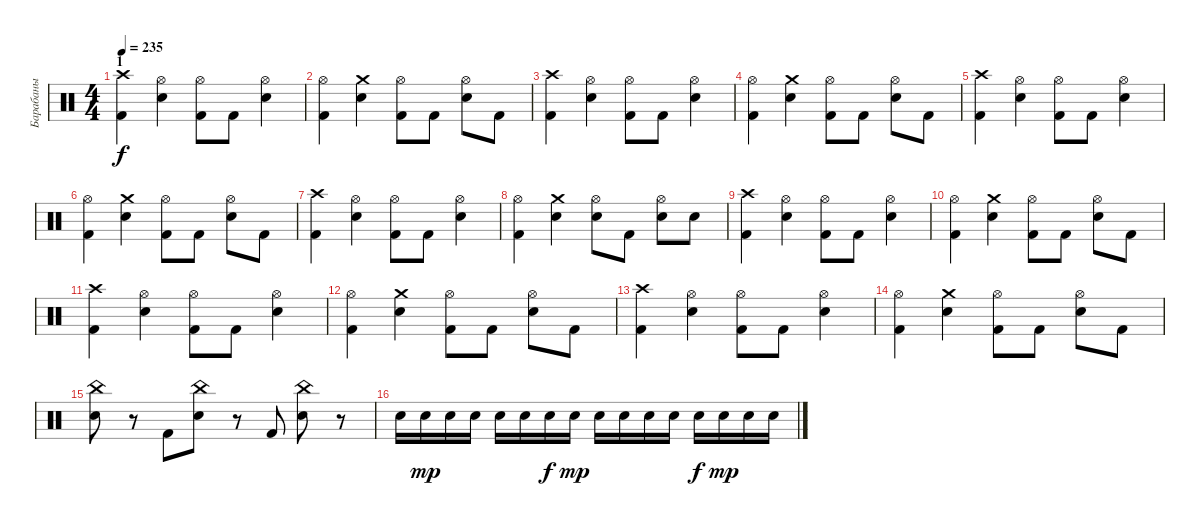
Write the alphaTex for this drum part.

\track ("Барабаны" "Барабаны") {instrument percussion}
\staff {score}
\articulation defaults
\ts (4 4)
\section ("" "1")
\tempo 235
\clef neutral
\ks c
("Crash high (hit)" "Kick (hit) 2").4{dy f} ("Electric Snare (hit)" "Hi-Hat (open)").4 ("Kick (hit) 2" "Hi-Hat (open)").8 "Kick (hit) 2".8 ("Hi-Hat (open)" "Electric Snare (hit)").4 |
("Hi-Hat (open)" "Kick (hit) 2").4 ("Crash medium (hit)" "Electric Snare (hit)").4 ("Hi-Hat (open)" "Kick (hit) 2").8 "Kick (hit) 2".8 ("Hi-Hat (open)" "Electric Snare (hit)").8 "Kick (hit) 2".8 |
("Crash high (hit)" "Kick (hit) 2").4 ("Electric Snare (hit)" "Hi-Hat (open)").4 ("Kick (hit) 2" "Hi-Hat (open)").8 "Kick (hit) 2".8 ("Hi-Hat (open)" "Electric Snare (hit)").4 |
("Hi-Hat (open)" "Kick (hit) 2").4 ("Crash medium (hit)" "Electric Snare (hit)").4 ("Hi-Hat (open)" "Kick (hit) 2").8 "Kick (hit) 2".8 ("Hi-Hat (open)" "Electric Snare (hit)").8 "Kick (hit) 2".8 |
("Crash high (hit)" "Kick (hit) 2").4 ("Electric Snare (hit)" "Hi-Hat (open)").4 ("Kick (hit) 2" "Hi-Hat (open)").8 "Kick (hit) 2".8 ("Hi-Hat (open)" "Electric Snare (hit)").4 |
("Hi-Hat (open)" "Kick (hit) 2").4 ("Crash medium (hit)" "Electric Snare (hit)").4 ("Hi-Hat (open)" "Kick (hit) 2").8 "Kick (hit) 2".8 ("Hi-Hat (open)" "Electric Snare (hit)").8 "Kick (hit) 2".8 |
("Crash high (hit)" "Kick (hit) 2").4 ("Electric Snare (hit)" "Hi-Hat (open)").4 ("Kick (hit) 2" "Hi-Hat (open)").8 "Kick (hit) 2".8 ("Hi-Hat (open)" "Electric Snare (hit)").4 |
("Hi-Hat (open)" "Kick (hit) 2").4 ("Crash medium (hit)" "Electric Snare (hit)").4 ("Hi-Hat (open)" "Electric Snare (hit)").8 "Kick (hit) 2".8 ("Hi-Hat (open)" "Electric Snare (hit)").8 "Electric Snare (hit)".8 |
("Crash high (hit)" "Kick (hit) 2").4 ("Electric Snare (hit)" "Hi-Hat (open)").4 ("Kick (hit) 2" "Hi-Hat (open)").8 "Kick (hit) 2".8 ("Hi-Hat (open)" "Electric Snare (hit)").4 |
("Hi-Hat (open)" "Kick (hit) 2").4 ("Crash medium (hit)" "Electric Snare (hit)").4 ("Hi-Hat (open)" "Kick (hit) 2").8 "Kick (hit) 2".8 ("Hi-Hat (open)" "Electric Snare (hit)").8 "Kick (hit) 2".8 |
("Crash high (hit)" "Kick (hit) 2").4 ("Electric Snare (hit)" "Hi-Hat (open)").4 ("Kick (hit) 2" "Hi-Hat (open)").8 "Kick (hit) 2".8 ("Hi-Hat (open)" "Electric Snare (hit)").4 |
("Hi-Hat (open)" "Kick (hit) 2").4 ("Crash medium (hit)" "Electric Snare (hit)").4 ("Hi-Hat (open)" "Kick (hit) 2").8 "Kick (hit) 2".8 ("Hi-Hat (open)" "Electric Snare (hit)").8 "Kick (hit) 2".8 |
("Crash high (hit)" "Kick (hit) 2").4 ("Electric Snare (hit)" "Hi-Hat (open)").4 ("Kick (hit) 2" "Hi-Hat (open)").8 "Kick (hit) 2".8 ("Hi-Hat (open)" "Electric Snare (hit)").4 |
("Hi-Hat (open)" "Kick (hit) 2").4 ("Crash medium (hit)" "Electric Snare (hit)").4 ("Hi-Hat (open)" "Kick (hit) 2").8 "Kick (hit) 2".8 ("Hi-Hat (open)" "Electric Snare (hit)").8 "Kick (hit) 2".8 |
("China (hit)" "Electric Snare (hit)").8 r.8 "Kick (hit) 2".8 ("China (hit)" "Electric Snare (hit)").8 r.8 "Kick (hit) 2".8 ("China (hit)" "Electric Snare (hit)").8 r.8 |
"Electric Snare (hit)".16 "Electric Snare (hit)".16{dy mp} "Electric Snare (hit)".16 "Electric Snare (hit)".16 "Electric Snare (hit)".16 "Electric Snare (hit)".16 "Electric Snare (hit)".16{dy f} "Electric Snare (hit)".16{dy mp} "Electric Snare (hit)".16 "Electric Snare (hit)".16 "Electric Snare (hit)".16 "Electric Snare (hit)".16 "Electric Snare (hit)".16{dy f} "Electric Snare (hit)".16{dy mp} "Electric Snare (hit)".16 "Electric Snare (hit)".16
